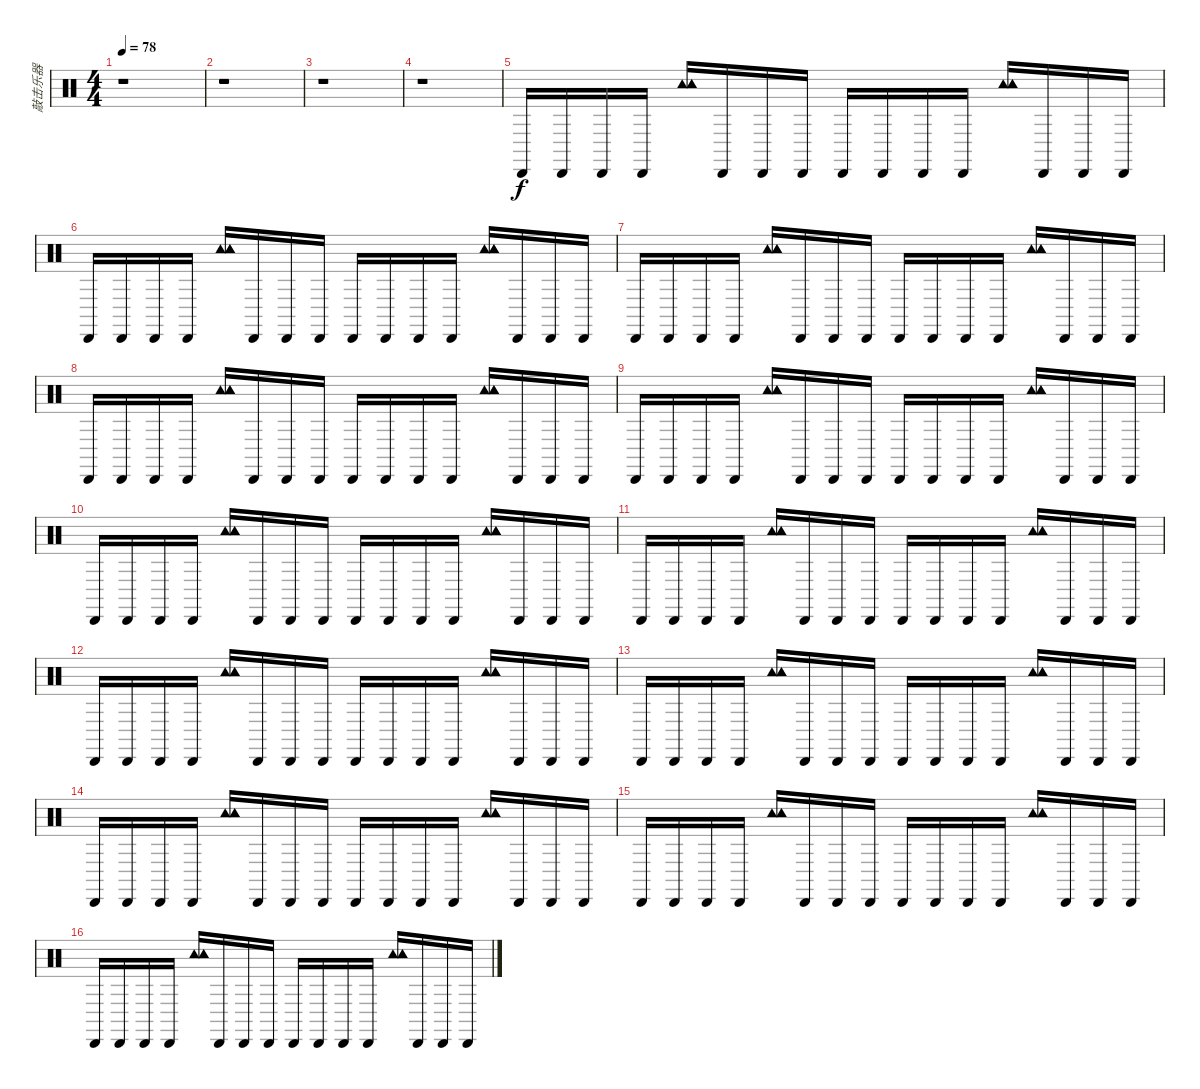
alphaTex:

\track ("敲击乐器" "敲击乐器") {instrument percussion}
\staff {score}
\articulation defaults
\ts (4 4)
\tempo 78
\clef neutral
\ks c
r.1{dy f} |
r.1 |
r.1 |
r.1 |
"Cabasa (hit)".16 "Cabasa (hit)".16 "Cabasa (hit)".16 "Cabasa (hit)".16 ("Tambourine (hit)" "Tambourine (hit)" "Tambourine (hit)").16 "Cabasa (hit)".16 "Cabasa (hit)".16 "Cabasa (hit)".16 "Cabasa (hit)".16 "Cabasa (hit)".16 "Cabasa (hit)".16 "Cabasa (hit)".16 ("Tambourine (hit)" "Tambourine (hit)" "Tambourine (hit)").16 "Cabasa (hit)".16 "Cabasa (hit)".16 "Cabasa (hit)".16 |
"Cabasa (hit)".16 "Cabasa (hit)".16 "Cabasa (hit)".16 "Cabasa (hit)".16 ("Tambourine (hit)" "Tambourine (hit)" "Tambourine (hit)").16 "Cabasa (hit)".16 "Cabasa (hit)".16 "Cabasa (hit)".16 "Cabasa (hit)".16 "Cabasa (hit)".16 "Cabasa (hit)".16 "Cabasa (hit)".16 ("Tambourine (hit)" "Tambourine (hit)" "Tambourine (hit)").16 "Cabasa (hit)".16 "Cabasa (hit)".16 "Cabasa (hit)".16 |
"Cabasa (hit)".16 "Cabasa (hit)".16 "Cabasa (hit)".16 "Cabasa (hit)".16 ("Tambourine (hit)" "Tambourine (hit)" "Tambourine (hit)").16 "Cabasa (hit)".16 "Cabasa (hit)".16 "Cabasa (hit)".16 "Cabasa (hit)".16 "Cabasa (hit)".16 "Cabasa (hit)".16 "Cabasa (hit)".16 ("Tambourine (hit)" "Tambourine (hit)" "Tambourine (hit)").16 "Cabasa (hit)".16 "Cabasa (hit)".16 "Cabasa (hit)".16 |
"Cabasa (hit)".16 "Cabasa (hit)".16 "Cabasa (hit)".16 "Cabasa (hit)".16 ("Tambourine (hit)" "Tambourine (hit)" "Tambourine (hit)").16 "Cabasa (hit)".16 "Cabasa (hit)".16 "Cabasa (hit)".16 "Cabasa (hit)".16 "Cabasa (hit)".16 "Cabasa (hit)".16 "Cabasa (hit)".16 ("Tambourine (hit)" "Tambourine (hit)" "Tambourine (hit)").16 "Cabasa (hit)".16 "Cabasa (hit)".16 "Cabasa (hit)".16 |
"Cabasa (hit)".16 "Cabasa (hit)".16 "Cabasa (hit)".16 "Cabasa (hit)".16 ("Tambourine (hit)" "Tambourine (hit)" "Tambourine (hit)").16 "Cabasa (hit)".16 "Cabasa (hit)".16 "Cabasa (hit)".16 "Cabasa (hit)".16 "Cabasa (hit)".16 "Cabasa (hit)".16 "Cabasa (hit)".16 ("Tambourine (hit)" "Tambourine (hit)" "Tambourine (hit)").16 "Cabasa (hit)".16 "Cabasa (hit)".16 "Cabasa (hit)".16 |
"Cabasa (hit)".16 "Cabasa (hit)".16 "Cabasa (hit)".16 "Cabasa (hit)".16 ("Tambourine (hit)" "Tambourine (hit)" "Tambourine (hit)").16 "Cabasa (hit)".16 "Cabasa (hit)".16 "Cabasa (hit)".16 "Cabasa (hit)".16 "Cabasa (hit)".16 "Cabasa (hit)".16 "Cabasa (hit)".16 ("Tambourine (hit)" "Tambourine (hit)" "Tambourine (hit)").16 "Cabasa (hit)".16 "Cabasa (hit)".16 "Cabasa (hit)".16 |
"Cabasa (hit)".16 "Cabasa (hit)".16 "Cabasa (hit)".16 "Cabasa (hit)".16 ("Tambourine (hit)" "Tambourine (hit)" "Tambourine (hit)").16 "Cabasa (hit)".16 "Cabasa (hit)".16 "Cabasa (hit)".16 "Cabasa (hit)".16 "Cabasa (hit)".16 "Cabasa (hit)".16 "Cabasa (hit)".16 ("Tambourine (hit)" "Tambourine (hit)" "Tambourine (hit)").16 "Cabasa (hit)".16 "Cabasa (hit)".16 "Cabasa (hit)".16 |
"Cabasa (hit)".16 "Cabasa (hit)".16 "Cabasa (hit)".16 "Cabasa (hit)".16 ("Tambourine (hit)" "Tambourine (hit)" "Tambourine (hit)").16 "Cabasa (hit)".16 "Cabasa (hit)".16 "Cabasa (hit)".16 "Cabasa (hit)".16 "Cabasa (hit)".16 "Cabasa (hit)".16 "Cabasa (hit)".16 ("Tambourine (hit)" "Tambourine (hit)" "Tambourine (hit)").16 "Cabasa (hit)".16 "Cabasa (hit)".16 "Cabasa (hit)".16 |
"Cabasa (hit)".16 "Cabasa (hit)".16 "Cabasa (hit)".16 "Cabasa (hit)".16 ("Tambourine (hit)" "Tambourine (hit)" "Tambourine (hit)").16 "Cabasa (hit)".16 "Cabasa (hit)".16 "Cabasa (hit)".16 "Cabasa (hit)".16 "Cabasa (hit)".16 "Cabasa (hit)".16 "Cabasa (hit)".16 ("Tambourine (hit)" "Tambourine (hit)" "Tambourine (hit)").16 "Cabasa (hit)".16 "Cabasa (hit)".16 "Cabasa (hit)".16 |
"Cabasa (hit)".16 "Cabasa (hit)".16 "Cabasa (hit)".16 "Cabasa (hit)".16 ("Tambourine (hit)" "Tambourine (hit)" "Tambourine (hit)").16 "Cabasa (hit)".16 "Cabasa (hit)".16 "Cabasa (hit)".16 "Cabasa (hit)".16 "Cabasa (hit)".16 "Cabasa (hit)".16 "Cabasa (hit)".16 ("Tambourine (hit)" "Tambourine (hit)" "Tambourine (hit)").16 "Cabasa (hit)".16 "Cabasa (hit)".16 "Cabasa (hit)".16 |
"Cabasa (hit)".16 "Cabasa (hit)".16 "Cabasa (hit)".16 "Cabasa (hit)".16 ("Tambourine (hit)" "Tambourine (hit)" "Tambourine (hit)").16 "Cabasa (hit)".16 "Cabasa (hit)".16 "Cabasa (hit)".16 "Cabasa (hit)".16 "Cabasa (hit)".16 "Cabasa (hit)".16 "Cabasa (hit)".16 ("Tambourine (hit)" "Tambourine (hit)" "Tambourine (hit)").16 "Cabasa (hit)".16 "Cabasa (hit)".16 "Cabasa (hit)".16 |
"Cabasa (hit)".16 "Cabasa (hit)".16 "Cabasa (hit)".16 "Cabasa (hit)".16 ("Tambourine (hit)" "Tambourine (hit)" "Tambourine (hit)").16 "Cabasa (hit)".16 "Cabasa (hit)".16 "Cabasa (hit)".16 "Cabasa (hit)".16 "Cabasa (hit)".16 "Cabasa (hit)".16 "Cabasa (hit)".16 ("Tambourine (hit)" "Tambourine (hit)" "Tambourine (hit)").16 "Cabasa (hit)".16 "Cabasa (hit)".16 "Cabasa (hit)".16
